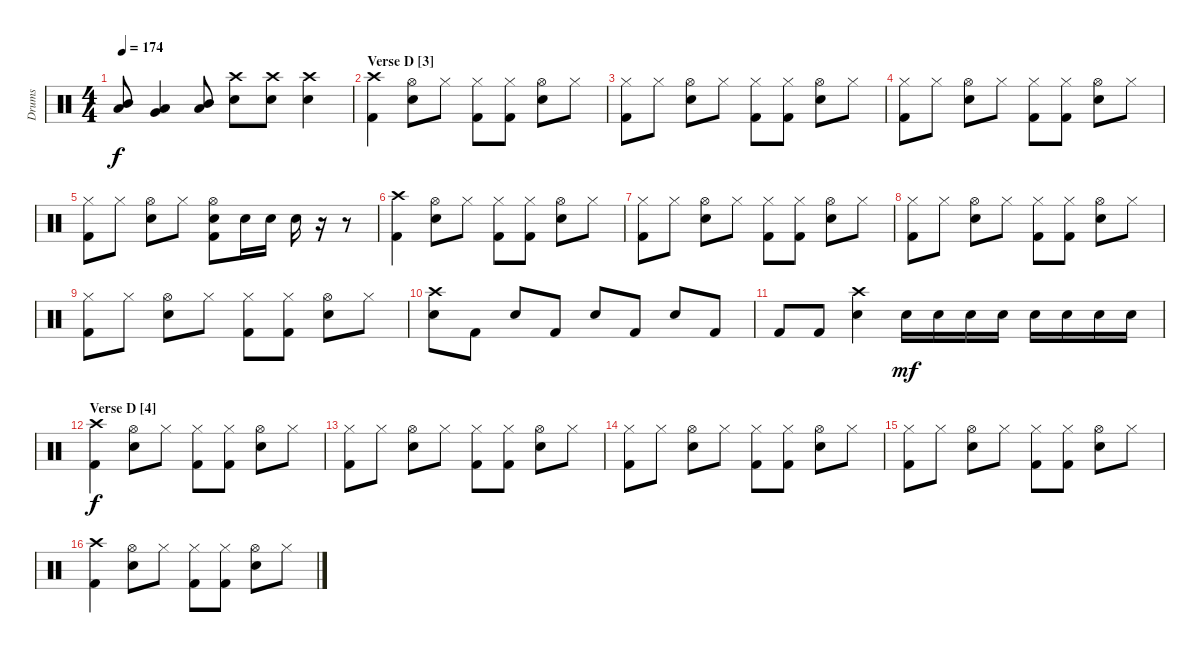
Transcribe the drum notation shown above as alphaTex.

\track ("Drums" "Drums") {instrument percussion}
\staff {score}
\articulation defaults
\ts (4 4)
\tempo 174
\clef neutral
\ks c
("Mid Tom (hit)" "Low Tom (hit)").8{dy f} ("Low Tom (hit)" "Very Low Tom (hit)").4 ("Mid Tom (hit)" "Low Tom (hit)").8 ("Crash high (hit)" "Electric Snare (hit)").8 ("Crash high (hit)" "Electric Snare (hit)").8 ("Crash high (hit)" "Electric Snare (hit)").4 |
\section ("" "Verse D [3]")
("Crash high (hit)" "Kick (hit) 2").4 ("Hi-Hat (open)" "Electric Snare (hit)").8 "Hi-Hat (closed)".8 ("Hi-Hat (closed)" "Kick (hit) 2").8 ("Hi-Hat (closed)" "Kick (hit) 2").8 ("Hi-Hat (open)" "Electric Snare (hit)").8 "Hi-Hat (closed)".8 |
("Hi-Hat (closed)" "Kick (hit) 2").8 "Hi-Hat (closed)".8 ("Hi-Hat (open)" "Electric Snare (hit)").8 "Hi-Hat (closed)".8 ("Hi-Hat (closed)" "Kick (hit) 2").8 ("Hi-Hat (closed)" "Kick (hit) 2").8 ("Hi-Hat (open)" "Electric Snare (hit)").8 "Hi-Hat (closed)".8 |
("Hi-Hat (closed)" "Kick (hit) 2").8 "Hi-Hat (closed)".8 ("Hi-Hat (open)" "Electric Snare (hit)").8 "Hi-Hat (closed)".8 ("Hi-Hat (closed)" "Kick (hit) 2").8 ("Hi-Hat (closed)" "Kick (hit) 2").8 ("Hi-Hat (open)" "Electric Snare (hit)").8 "Hi-Hat (closed)".8 |
("Hi-Hat (closed)" "Kick (hit) 2").8 "Hi-Hat (closed)".8 ("Hi-Hat (open)" "Electric Snare (hit)").8 "Hi-Hat (closed)".8 ("Hi-Hat (open)" "Electric Snare (hit)" "Kick (hit) 2").8 "Electric Snare (hit)".16 "Electric Snare (hit)".16 "Electric Snare (hit)".16 r.16 r.8 |
("Crash high (hit)" "Kick (hit) 2").4 ("Hi-Hat (open)" "Electric Snare (hit)").8 "Hi-Hat (closed)".8 ("Hi-Hat (closed)" "Kick (hit) 2").8 ("Hi-Hat (closed)" "Kick (hit) 2").8 ("Hi-Hat (open)" "Electric Snare (hit)").8 "Hi-Hat (closed)".8 |
("Hi-Hat (closed)" "Kick (hit) 2").8 "Hi-Hat (closed)".8 ("Hi-Hat (open)" "Electric Snare (hit)").8 "Hi-Hat (closed)".8 ("Hi-Hat (closed)" "Kick (hit) 2").8 ("Hi-Hat (closed)" "Kick (hit) 2").8 ("Hi-Hat (open)" "Electric Snare (hit)").8 "Hi-Hat (closed)".8 |
("Hi-Hat (closed)" "Kick (hit) 2").8 "Hi-Hat (closed)".8 ("Hi-Hat (open)" "Electric Snare (hit)").8 "Hi-Hat (closed)".8 ("Hi-Hat (closed)" "Kick (hit) 2").8 ("Hi-Hat (closed)" "Kick (hit) 2").8 ("Hi-Hat (open)" "Electric Snare (hit)").8 "Hi-Hat (closed)".8 |
("Hi-Hat (closed)" "Kick (hit) 2").8 "Hi-Hat (closed)".8 ("Hi-Hat (open)" "Electric Snare (hit)").8 "Hi-Hat (closed)".8 ("Hi-Hat (closed)" "Kick (hit) 2").8 ("Hi-Hat (closed)" "Kick (hit) 2").8 ("Hi-Hat (open)" "Electric Snare (hit)").8 "Hi-Hat (closed)".8 |
("Crash high (hit)" "Electric Snare (hit)").8 "Kick (hit) 2".8 "Electric Snare (hit)".8 "Kick (hit) 2".8 "Electric Snare (hit)".8 "Kick (hit) 2".8 "Electric Snare (hit)".8 "Kick (hit) 2".8 |
"Kick (hit) 2".8 "Kick (hit) 2".8 ("Crash high (hit)" "Electric Snare (hit)").4 "Electric Snare (hit)".16{dy mf} "Electric Snare (hit)".16 "Electric Snare (hit)".16 "Electric Snare (hit)".16 "Electric Snare (hit)".16 "Electric Snare (hit)".16 "Electric Snare (hit)".16 "Electric Snare (hit)".16 |
\section ("" "Verse D [4]")
("Crash high (hit)" "Kick (hit) 2").4{dy f} ("Hi-Hat (open)" "Electric Snare (hit)").8 "Hi-Hat (closed)".8 ("Hi-Hat (closed)" "Kick (hit) 2").8 ("Hi-Hat (closed)" "Kick (hit) 2").8 ("Hi-Hat (open)" "Electric Snare (hit)").8 "Hi-Hat (closed)".8 |
("Hi-Hat (closed)" "Kick (hit) 2").8 "Hi-Hat (closed)".8 ("Hi-Hat (open)" "Electric Snare (hit)").8 "Hi-Hat (closed)".8 ("Hi-Hat (closed)" "Kick (hit) 2").8 ("Hi-Hat (closed)" "Kick (hit) 2").8 ("Hi-Hat (open)" "Electric Snare (hit)").8 "Hi-Hat (closed)".8 |
("Hi-Hat (closed)" "Kick (hit) 2").8 "Hi-Hat (closed)".8 ("Hi-Hat (open)" "Electric Snare (hit)").8 "Hi-Hat (closed)".8 ("Hi-Hat (closed)" "Kick (hit) 2").8 ("Hi-Hat (closed)" "Kick (hit) 2").8 ("Hi-Hat (open)" "Electric Snare (hit)").8 "Hi-Hat (closed)".8 |
("Hi-Hat (closed)" "Kick (hit) 2").8 "Hi-Hat (closed)".8 ("Hi-Hat (open)" "Electric Snare (hit)").8 "Hi-Hat (closed)".8 ("Hi-Hat (closed)" "Kick (hit) 2").8 ("Hi-Hat (closed)" "Kick (hit) 2").8 ("Hi-Hat (open)" "Electric Snare (hit)").8 "Hi-Hat (closed)".8 |
("Crash high (hit)" "Kick (hit) 2").4 ("Hi-Hat (open)" "Electric Snare (hit)").8 "Hi-Hat (closed)".8 ("Hi-Hat (closed)" "Kick (hit) 2").8 ("Hi-Hat (closed)" "Kick (hit) 2").8 ("Hi-Hat (open)" "Electric Snare (hit)").8 "Hi-Hat (closed)".8
